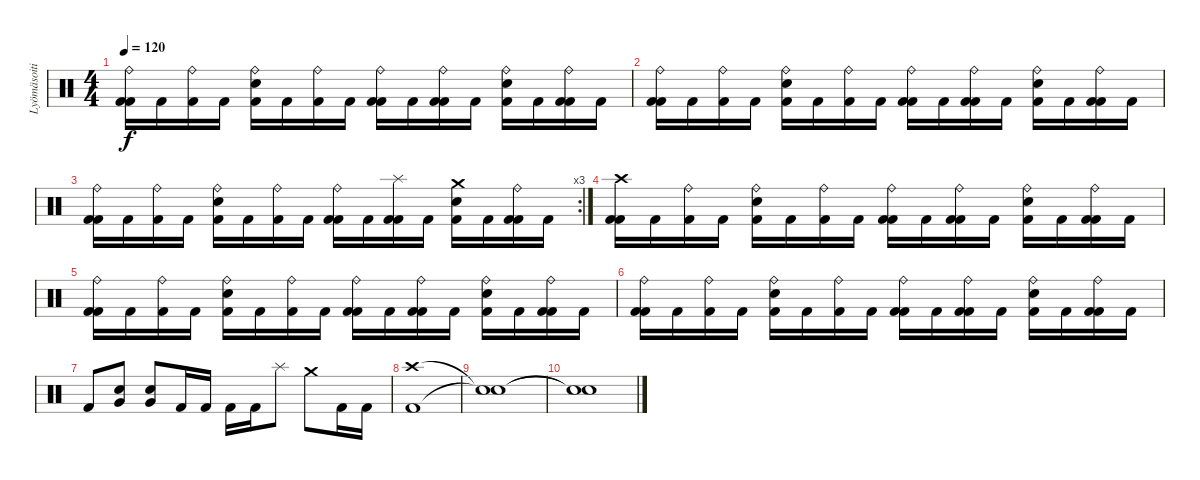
\track ("Lyömäsoitin" "Lyömäsoiti") {instrument percussion}
\staff {score}
\articulation defaults
\ts (4 4)
\tempo 120
\clef neutral
\ks c
("Ride (bell)" "Kick (hit) 2" "Kick (hit) 2").16{dy f} "Kick (hit) 2".16 ("Ride (bell)" "Kick (hit) 2").16 "Kick (hit) 2".16 ("Ride (bell)" "Snare (hit) 2" "Kick (hit) 2").16 "Kick (hit) 2".16 ("Ride (bell)" "Kick (hit) 2").16 "Kick (hit) 2".16 ("Ride (bell)" "Kick (hit) 2" "Kick (hit) 2").16 "Kick (hit) 2".16 ("Ride (bell)" "Kick (hit) 2" "Kick (hit) 2").16 "Kick (hit) 2".16 ("Ride (bell)" "Snare (hit) 2" "Kick (hit) 2").16 "Kick (hit) 2".16 ("Ride (bell)" "Kick (hit) 2" "Kick (hit) 2").16 "Kick (hit) 2".16 |
("Ride (bell)" "Kick (hit) 2" "Kick (hit) 2").16 "Kick (hit) 2".16 ("Ride (bell)" "Kick (hit) 2").16 "Kick (hit) 2".16 ("Ride (bell)" "Snare (hit) 2" "Kick (hit) 2").16 "Kick (hit) 2".16 ("Ride (bell)" "Kick (hit) 2").16 "Kick (hit) 2".16 ("Ride (bell)" "Kick (hit) 2" "Kick (hit) 2").16 "Kick (hit) 2".16 ("Ride (bell)" "Kick (hit) 2" "Kick (hit) 2").16 "Kick (hit) 2".16 ("Ride (bell)" "Snare (hit) 2" "Kick (hit) 2").16 "Kick (hit) 2".16 ("Ride (bell)" "Kick (hit) 2" "Kick (hit) 2").16 "Kick (hit) 2".16 |
\rc 3
("Ride (bell)" "Kick (hit) 2" "Kick (hit) 2").16 "Kick (hit) 2".16 ("Ride (bell)" "Kick (hit) 2").16 "Kick (hit) 2".16 ("Ride (bell)" "Snare (hit) 2" "Kick (hit) 2").16 "Kick (hit) 2".16 ("Ride (bell)" "Kick (hit) 2").16 "Kick (hit) 2".16 ("Ride (bell)" "Kick (hit) 2" "Kick (hit) 2").16 "Kick (hit) 2".16 ("Splash (hit)" "Kick (hit) 2" "Kick (hit) 2").16 "Kick (hit) 2".16 ("Crash medium (hit)" "Snare (hit) 2" "Kick (hit) 2").16 "Kick (hit) 2".16 ("Ride (bell)" "Kick (hit) 2" "Kick (hit) 2").16 "Kick (hit) 2".16 |
("Crash high (hit)" "Kick (hit) 2" "Kick (hit) 2").16 "Kick (hit) 2".16 ("Ride (bell)" "Kick (hit) 2").16 "Kick (hit) 2".16 ("Ride (bell)" "Snare (hit) 2" "Kick (hit) 2").16 "Kick (hit) 2".16 ("Ride (bell)" "Kick (hit) 2").16 "Kick (hit) 2".16 ("Ride (bell)" "Kick (hit) 2" "Kick (hit) 2").16 "Kick (hit) 2".16 ("Ride (bell)" "Kick (hit) 2" "Kick (hit) 2").16 "Kick (hit) 2".16 ("Ride (bell)" "Snare (hit) 2" "Kick (hit) 2").16 "Kick (hit) 2".16 ("Ride (bell)" "Kick (hit) 2" "Kick (hit) 2").16 "Kick (hit) 2".16 |
("Ride (bell)" "Kick (hit) 2" "Kick (hit) 2").16 "Kick (hit) 2".16 ("Ride (bell)" "Kick (hit) 2").16 "Kick (hit) 2".16 ("Ride (bell)" "Snare (hit) 2" "Kick (hit) 2").16 "Kick (hit) 2".16 ("Ride (bell)" "Kick (hit) 2").16 "Kick (hit) 2".16 ("Ride (bell)" "Kick (hit) 2" "Kick (hit) 2").16 "Kick (hit) 2".16 ("Ride (bell)" "Kick (hit) 2" "Kick (hit) 2").16 "Kick (hit) 2".16 ("Ride (bell)" "Snare (hit) 2" "Kick (hit) 2").16 "Kick (hit) 2".16 ("Ride (bell)" "Kick (hit) 2" "Kick (hit) 2").16 "Kick (hit) 2".16 |
("Ride (bell)" "Kick (hit) 2" "Kick (hit) 2").16 "Kick (hit) 2".16 ("Ride (bell)" "Kick (hit) 2").16 "Kick (hit) 2".16 ("Ride (bell)" "Snare (hit) 2" "Kick (hit) 2").16 "Kick (hit) 2".16 ("Ride (bell)" "Kick (hit) 2").16 "Kick (hit) 2".16 ("Ride (bell)" "Kick (hit) 2" "Kick (hit) 2").16 "Kick (hit) 2".16 ("Ride (bell)" "Kick (hit) 2" "Kick (hit) 2").16 "Kick (hit) 2".16 ("Ride (bell)" "Snare (hit) 2" "Kick (hit) 2").16 "Kick (hit) 2".16 ("Ride (bell)" "Kick (hit) 2" "Kick (hit) 2").16 "Kick (hit) 2".16 |
"Kick (hit) 2".8 ("Very Low Tom (hit)" "Snare (hit) 2").8 ("Very Low Tom (hit)" "Snare (hit) 2").8 "Kick (hit) 2".16 "Kick (hit) 2".16 "Kick (hit) 2".16 "Kick (hit) 2".16 "Splash (hit)".8 "Crash medium (hit)".8 "Kick (hit) 2".16 "Kick (hit) 2".16 |
("Crash high (hit)" "Kick (hit) 2").1 |
("Snare (hit)"{t} "Snare (hit)"{t}).1 |
("Snare (hit)"{t} "Snare (hit)"{t}).1
